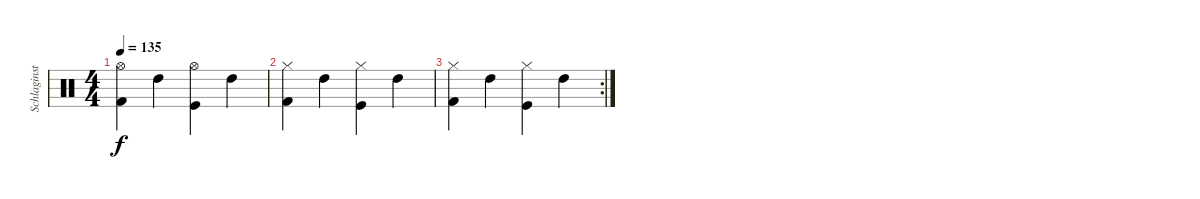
\track ("Schlaginstrumente - Auswahl" "Schlaginst") {instrument percussion}
\staff {score}
\articulation defaults
\ts (4 4)
\tempo 135
\clef neutral
\ks c
("Kick (hit) 2" "Hi-Hat (open)").4{dy f} "High Tom (hit)".4 ("Kick (hit)" "Hi-Hat (open)").4 "High Tom (hit)".4 |
("Kick (hit) 2" "Hi-Hat (closed)").4 "High Tom (hit)".4 ("Kick (hit)" "Hi-Hat (closed)").4 "High Tom (hit)".4 |
\rc 2
("Kick (hit) 2" "Hi-Hat (closed)").4 "High Tom (hit)".4 ("Kick (hit)" "Hi-Hat (closed)").4 "High Tom (hit)".4
